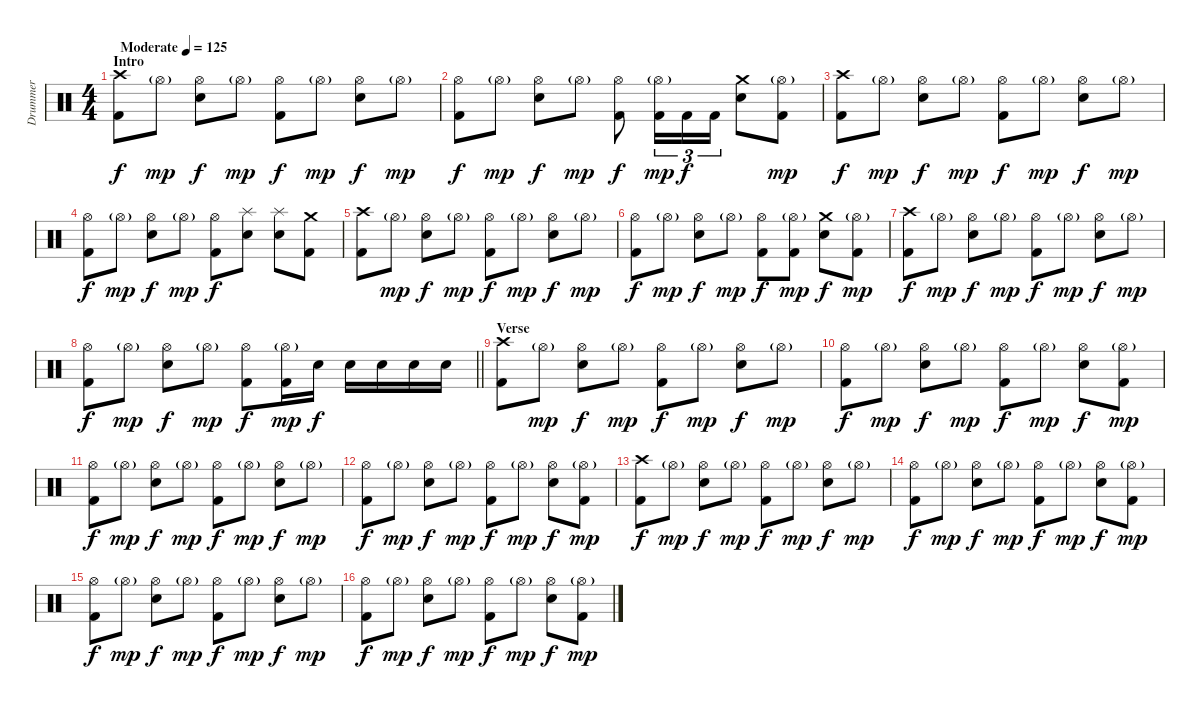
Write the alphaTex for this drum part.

\track ("Drummer" "Drummer") {instrument percussion}
\staff {score}
\articulation defaults
\ts (4 4)
\section ("" "Intro")
\tempo (125 "Moderate")
\clef neutral
\ks c
("Crash high (hit)" "Kick (hit) 2").8{dy f} "Hi-Hat (open)"{g}.8{dy mp} ("Hi-Hat (open)" "Electric Snare (hit)").8{dy f} "Hi-Hat (open)"{g}.8{dy mp} ("Hi-Hat (open)" "Kick (hit) 2").8{dy f} "Hi-Hat (open)"{g}.8{dy mp} ("Hi-Hat (open)" "Electric Snare (hit)").8{dy f} "Hi-Hat (open)"{g}.8{dy mp} |
("Hi-Hat (open)" "Kick (hit) 2").8{dy f} "Hi-Hat (open)"{g}.8{dy mp} ("Hi-Hat (open)" "Electric Snare (hit)").8{dy f} "Hi-Hat (open)"{g}.8{dy mp} ("Hi-Hat (open)" "Kick (hit) 2").8{dy f} ("Hi-Hat (open)"{g} "Kick (hit) 2").16{tu (3 2) dy mp} "Kick (hit) 2".16{tu (3 2) dy f} "Kick (hit) 2".16{tu (3 2)} ("Crash medium (hit)" "Electric Snare (hit)").8 ("Hi-Hat (open)"{g} "Kick (hit) 2").8{dy mp} |
("Crash high (hit)" "Kick (hit) 2").8{dy f} "Hi-Hat (open)"{g}.8{dy mp} ("Hi-Hat (open)" "Electric Snare (hit)").8{dy f} "Hi-Hat (open)"{g}.8{dy mp} ("Hi-Hat (open)" "Kick (hit) 2").8{dy f} "Hi-Hat (open)"{g}.8{dy mp} ("Hi-Hat (open)" "Electric Snare (hit)").8{dy f} "Hi-Hat (open)"{g}.8{dy mp} |
("Hi-Hat (open)" "Kick (hit) 2").8{dy f} "Hi-Hat (open)"{g}.8{dy mp} ("Hi-Hat (open)" "Electric Snare (hit)").8{dy f} "Hi-Hat (open)"{g}.8{dy mp} ("Hi-Hat (open)" "Kick (hit) 2").8{dy f} ("Splash (hit)" "Electric Snare (hit)").8 ("Splash (hit)" "Electric Snare (hit)").8 ("Crash medium (hit)" "Kick (hit) 2").8 |
("Crash high (hit)" "Kick (hit) 2").8 "Hi-Hat (open)"{g}.8{dy mp} ("Hi-Hat (open)" "Electric Snare (hit)").8{dy f} "Hi-Hat (open)"{g}.8{dy mp} ("Hi-Hat (open)" "Kick (hit) 2").8{dy f} "Hi-Hat (open)"{g}.8{dy mp} ("Hi-Hat (open)" "Electric Snare (hit)").8{dy f} "Hi-Hat (open)"{g}.8{dy mp} |
("Hi-Hat (open)" "Kick (hit) 2").8{dy f} "Hi-Hat (open)"{g}.8{dy mp} ("Hi-Hat (open)" "Electric Snare (hit)").8{dy f} "Hi-Hat (open)"{g}.8{dy mp} ("Hi-Hat (open)" "Kick (hit) 2").8{dy f} ("Hi-Hat (open)"{g} "Kick (hit) 2").8{dy mp} ("Crash medium (hit)" "Electric Snare (hit)").8{dy f} ("Hi-Hat (open)"{g} "Kick (hit) 2").8{dy mp} |
("Crash high (hit)" "Kick (hit) 2").8{dy f} "Hi-Hat (open)"{g}.8{dy mp} ("Hi-Hat (open)" "Electric Snare (hit)").8{dy f} "Hi-Hat (open)"{g}.8{dy mp} ("Hi-Hat (open)" "Kick (hit) 2").8{dy f} "Hi-Hat (open)"{g}.8{dy mp} ("Hi-Hat (open)" "Electric Snare (hit)").8{dy f} "Hi-Hat (open)"{g}.8{dy mp} |
\barLineRight lightlight
("Hi-Hat (open)" "Kick (hit) 2").8{dy f} "Hi-Hat (open)"{g}.8{dy mp} ("Hi-Hat (open)" "Electric Snare (hit)").8{dy f} "Hi-Hat (open)"{g}.8{dy mp} ("Hi-Hat (open)" "Kick (hit) 2").8{dy f} ("Hi-Hat (open)"{g} "Kick (hit) 2").16{dy mp} "Electric Snare (hit)".16{dy f} "Electric Snare (hit)".16 "Electric Snare (hit)".16 "Electric Snare (hit)".16 "Electric Snare (hit)".16 |
\section ("" "Verse")
("Crash high (hit)" "Kick (hit) 2").8 "Hi-Hat (open)"{g}.8{dy mp} ("Hi-Hat (open)" "Electric Snare (hit)").8{dy f} "Hi-Hat (open)"{g}.8{dy mp} ("Hi-Hat (open)" "Kick (hit) 2").8{dy f} "Hi-Hat (open)"{g}.8{dy mp} ("Hi-Hat (open)" "Electric Snare (hit)").8{dy f} "Hi-Hat (open)"{g}.8{dy mp} |
("Hi-Hat (open)" "Kick (hit) 2").8{dy f} "Hi-Hat (open)"{g}.8{dy mp} ("Hi-Hat (open)" "Electric Snare (hit)").8{dy f} "Hi-Hat (open)"{g}.8{dy mp} ("Hi-Hat (open)" "Kick (hit) 2").8{dy f} "Hi-Hat (open)"{g}.8{dy mp} ("Hi-Hat (open)" "Electric Snare (hit)").8{dy f} ("Hi-Hat (open)"{g} "Kick (hit) 2").8{dy mp} |
("Hi-Hat (open)" "Kick (hit) 2").8{dy f} "Hi-Hat (open)"{g}.8{dy mp} ("Hi-Hat (open)" "Electric Snare (hit)").8{dy f} "Hi-Hat (open)"{g}.8{dy mp} ("Hi-Hat (open)" "Kick (hit) 2").8{dy f} "Hi-Hat (open)"{g}.8{dy mp} ("Hi-Hat (open)" "Electric Snare (hit)").8{dy f} "Hi-Hat (open)"{g}.8{dy mp} |
("Hi-Hat (open)" "Kick (hit) 2").8{dy f} "Hi-Hat (open)"{g}.8{dy mp} ("Hi-Hat (open)" "Electric Snare (hit)").8{dy f} "Hi-Hat (open)"{g}.8{dy mp} ("Hi-Hat (open)" "Kick (hit) 2").8{dy f} "Hi-Hat (open)"{g}.8{dy mp} ("Hi-Hat (open)" "Electric Snare (hit)").8{dy f} ("Hi-Hat (open)"{g} "Kick (hit) 2").8{dy mp} |
("Crash high (hit)" "Kick (hit) 2").8{dy f} "Hi-Hat (open)"{g}.8{dy mp} ("Hi-Hat (open)" "Electric Snare (hit)").8{dy f} "Hi-Hat (open)"{g}.8{dy mp} ("Hi-Hat (open)" "Kick (hit) 2").8{dy f} "Hi-Hat (open)"{g}.8{dy mp} ("Hi-Hat (open)" "Electric Snare (hit)").8{dy f} "Hi-Hat (open)"{g}.8{dy mp} |
("Hi-Hat (open)" "Kick (hit) 2").8{dy f} "Hi-Hat (open)"{g}.8{dy mp} ("Hi-Hat (open)" "Electric Snare (hit)").8{dy f} "Hi-Hat (open)"{g}.8{dy mp} ("Hi-Hat (open)" "Kick (hit) 2").8{dy f} "Hi-Hat (open)"{g}.8{dy mp} ("Hi-Hat (open)" "Electric Snare (hit)").8{dy f} ("Hi-Hat (open)"{g} "Kick (hit) 2").8{dy mp} |
("Hi-Hat (open)" "Kick (hit) 2").8{dy f} "Hi-Hat (open)"{g}.8{dy mp} ("Hi-Hat (open)" "Electric Snare (hit)").8{dy f} "Hi-Hat (open)"{g}.8{dy mp} ("Hi-Hat (open)" "Kick (hit) 2").8{dy f} "Hi-Hat (open)"{g}.8{dy mp} ("Hi-Hat (open)" "Electric Snare (hit)").8{dy f} "Hi-Hat (open)"{g}.8{dy mp} |
("Hi-Hat (open)" "Kick (hit) 2").8{dy f} "Hi-Hat (open)"{g}.8{dy mp} ("Hi-Hat (open)" "Electric Snare (hit)").8{dy f} "Hi-Hat (open)"{g}.8{dy mp} ("Hi-Hat (open)" "Kick (hit) 2").8{dy f} "Hi-Hat (open)"{g}.8{dy mp} ("Hi-Hat (open)" "Electric Snare (hit)").8{dy f} ("Hi-Hat (open)"{g} "Kick (hit) 2").8{dy mp}
